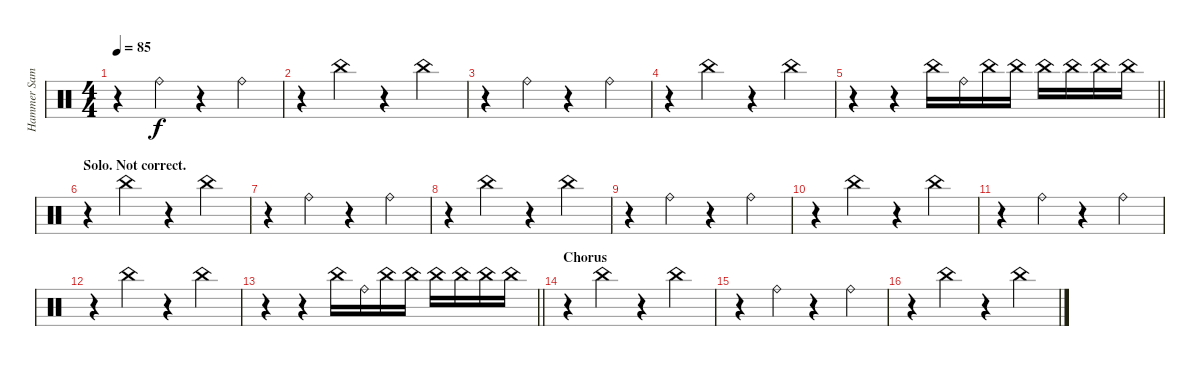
\track ("Hammer Samples" "Hammer Sam") {instrument percussion}
\staff {score}
\articulation defaults
\ts (4 4)
\tempo 85
\clef neutral
\ks c
r.4{dy f} "Ride (bell)".4 r.4 "Ride (bell)".4 |
r.4 "China (hit)".4 r.4 "China (hit)".4 |
r.4 "Ride (bell)".4 r.4 "Ride (bell)".4 |
r.4 "China (hit)".4 r.4 "China (hit)".4 |
\barLineRight lightlight
r.4 r.4 "China (hit)".16 "Ride (bell)".16 "China (hit)".16 "China (hit)".16 "China (hit)".16 "China (hit)".16 "China (hit)".16 "China (hit)".16 |
\section ("" "Solo. Not correct.")
r.4 "China (hit)".4 r.4 "China (hit)".4 |
r.4 "Ride (bell)".4 r.4 "Ride (bell)".4 |
r.4 "China (hit)".4 r.4 "China (hit)".4 |
r.4 "Ride (bell)".4 r.4 "Ride (bell)".4 |
r.4 "China (hit)".4 r.4 "China (hit)".4 |
r.4 "Ride (bell)".4 r.4 "Ride (bell)".4 |
r.4 "China (hit)".4 r.4 "China (hit)".4 |
\barLineRight lightlight
r.4 r.4 "China (hit)".16 "Ride (bell)".16 "China (hit)".16 "China (hit)".16 "China (hit)".16 "China (hit)".16 "China (hit)".16 "China (hit)".16 |
\section ("" "Chorus")
r.4 "China (hit)".4 r.4 "China (hit)".4 |
r.4 "Ride (bell)".4 r.4 "Ride (bell)".4 |
r.4 "China (hit)".4 r.4 "China (hit)".4
